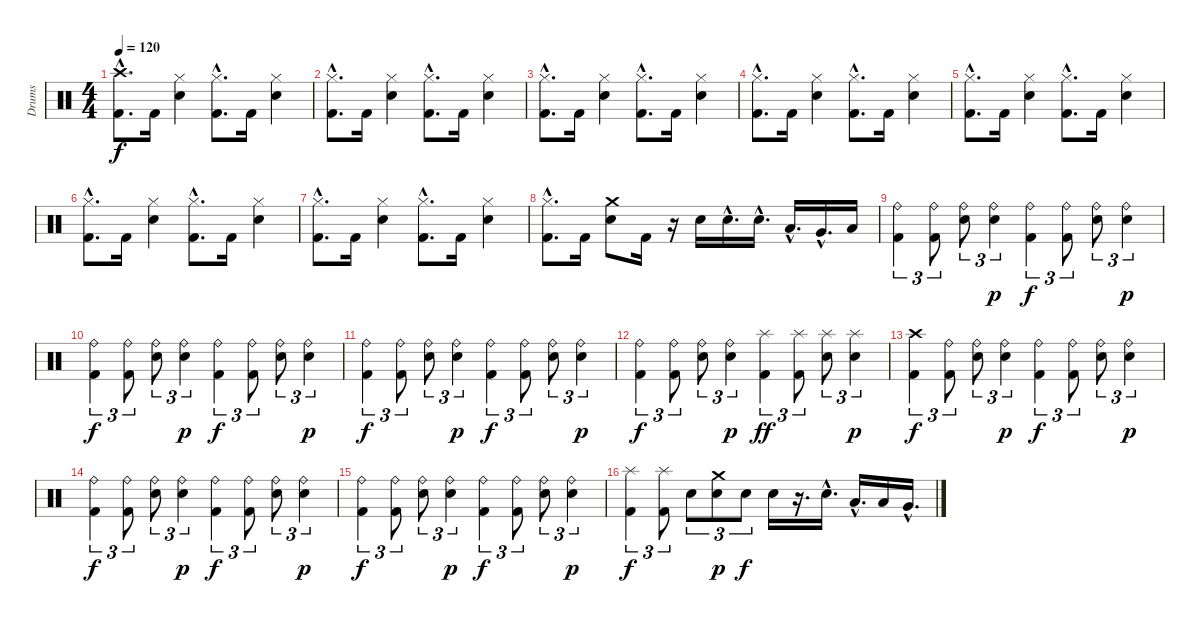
\track ("Drums" "Drums") {instrument percussion}
\staff {score}
\articulation defaults
\ts (4 4)
\tempo 120
\clef neutral
\ks c
("Crash high (hit)"{hac} "Kick (hit) 2"{hac}).8{d dy f} "Kick (hit) 2".16 ("Hi-Hat (closed)" "Snare (hit) 2").4 ("Hi-Hat (closed)"{hac} "Kick (hit) 2"{hac}).8{d} "Kick (hit) 2".16 ("Hi-Hat (closed)" "Snare (hit) 2").4 |
("Hi-Hat (closed)"{hac} "Kick (hit) 2"{hac}).8{d} "Kick (hit) 2".16 ("Hi-Hat (closed)" "Snare (hit) 2").4 ("Hi-Hat (closed)"{hac} "Kick (hit) 2"{hac}).8{d} "Kick (hit) 2".16 ("Hi-Hat (closed)" "Snare (hit) 2").4 |
("Hi-Hat (closed)"{hac} "Kick (hit) 2"{hac}).8{d} "Kick (hit) 2".16 ("Hi-Hat (closed)" "Snare (hit) 2").4 ("Hi-Hat (closed)"{hac} "Kick (hit) 2"{hac}).8{d} "Kick (hit) 2".16 ("Hi-Hat (closed)" "Snare (hit) 2").4 |
("Hi-Hat (closed)"{hac} "Kick (hit) 2"{hac}).8{d} "Kick (hit) 2".16 ("Hi-Hat (closed)" "Snare (hit) 2").4 ("Hi-Hat (closed)"{hac} "Kick (hit) 2"{hac}).8{d} "Kick (hit) 2".16 ("Hi-Hat (closed)" "Snare (hit) 2").4 |
("Hi-Hat (closed)"{hac} "Kick (hit) 2"{hac}).8{d} "Kick (hit) 2".16 ("Hi-Hat (closed)" "Snare (hit) 2").4 ("Hi-Hat (closed)"{hac} "Kick (hit) 2"{hac}).8{d} "Kick (hit) 2".16 ("Hi-Hat (closed)" "Snare (hit) 2").4 |
("Hi-Hat (closed)"{hac} "Kick (hit) 2"{hac}).8{d} "Kick (hit) 2".16 ("Hi-Hat (closed)" "Snare (hit) 2").4 ("Hi-Hat (closed)"{hac} "Kick (hit) 2"{hac}).8{d} "Kick (hit) 2".16 ("Hi-Hat (closed)" "Snare (hit) 2").4 |
("Hi-Hat (closed)"{hac} "Kick (hit) 2"{hac}).8{d} "Kick (hit) 2".16 ("Hi-Hat (closed)" "Snare (hit) 2").4 ("Hi-Hat (closed)"{hac} "Kick (hit) 2"{hac}).8{d} "Kick (hit) 2".16 ("Hi-Hat (closed)" "Snare (hit) 2").4 |
("Hi-Hat (closed)"{hac} "Kick (hit) 2"{hac}).8{d} "Kick (hit) 2".16 ("Crash medium (hit)" "Snare (hit) 2").8 "Kick (hit) 2".16 r.16 "Snare (hit) 2".16 "Snare (hit) 2"{hac}.16{d} "Snare (hit) 2"{hac}.16{d} "Low Tom (hit)"{hac}.16{d} "Very Low Tom (hit)"{hac}.16{d} "Low Floor Tom (hit)".16 |
("Ride (bell)" "Kick (hit) 2").4{tu (3 2)} ("Ride (bell)" "Kick (hit) 2").8{tu (3 2)} ("Ride (bell)" "Snare (hit) 2").8{tu (3 2)} ("Ride (bell)" "Snare (hit) 2").4{tu (3 2) dy p} ("Ride (bell)" "Kick (hit) 2").4{tu (3 2) dy f} ("Ride (bell)" "Kick (hit) 2").8{tu (3 2)} ("Ride (bell)" "Snare (hit) 2").8{tu (3 2)} ("Ride (bell)" "Snare (hit) 2").4{tu (3 2) dy p} |
("Ride (bell)" "Kick (hit) 2").4{tu (3 2) dy f} ("Ride (bell)" "Kick (hit) 2").8{tu (3 2)} ("Ride (bell)" "Snare (hit) 2").8{tu (3 2)} ("Ride (bell)" "Snare (hit) 2").4{tu (3 2) dy p} ("Ride (bell)" "Kick (hit) 2").4{tu (3 2) dy f} ("Ride (bell)" "Kick (hit) 2").8{tu (3 2)} ("Ride (bell)" "Snare (hit) 2").8{tu (3 2)} ("Ride (bell)" "Snare (hit) 2").4{tu (3 2) dy p} |
("Ride (bell)" "Kick (hit) 2").4{tu (3 2) dy f} ("Ride (bell)" "Kick (hit) 2").8{tu (3 2)} ("Ride (bell)" "Snare (hit) 2").8{tu (3 2)} ("Ride (bell)" "Snare (hit) 2").4{tu (3 2) dy p} ("Ride (bell)" "Kick (hit) 2").4{tu (3 2) dy f} ("Ride (bell)" "Kick (hit) 2").8{tu (3 2)} ("Ride (bell)" "Snare (hit) 2").8{tu (3 2)} ("Ride (bell)" "Snare (hit) 2").4{tu (3 2) dy p} |
("Ride (bell)" "Kick (hit) 2").4{tu (3 2) dy f} ("Ride (bell)" "Kick (hit) 2").8{tu (3 2)} ("Ride (bell)" "Snare (hit) 2").8{tu (3 2)} ("Ride (bell)" "Snare (hit) 2").4{tu (3 2) dy p} ("Splash (hit)" "Kick (hit) 2").4{tu (3 2) dy ff} ("Splash (hit)" "Kick (hit) 2").8{tu (3 2)} ("Splash (hit)" "Snare (hit) 2").8{tu (3 2)} ("Splash (hit)" "Snare (hit) 2").4{tu (3 2) dy p} |
("Crash high (hit)" "Kick (hit) 2").4{tu (3 2) dy f} ("Ride (bell)" "Kick (hit) 2").8{tu (3 2)} ("Ride (bell)" "Snare (hit) 2").8{tu (3 2)} ("Ride (bell)" "Snare (hit) 2").4{tu (3 2) dy p} ("Ride (bell)" "Kick (hit) 2").4{tu (3 2) dy f} ("Ride (bell)" "Kick (hit) 2").8{tu (3 2)} ("Ride (bell)" "Snare (hit) 2").8{tu (3 2)} ("Ride (bell)" "Snare (hit) 2").4{tu (3 2) dy p} |
("Ride (bell)" "Kick (hit) 2").4{tu (3 2) dy f} ("Ride (bell)" "Kick (hit) 2").8{tu (3 2)} ("Ride (bell)" "Snare (hit) 2").8{tu (3 2)} ("Ride (bell)" "Snare (hit) 2").4{tu (3 2) dy p} ("Ride (bell)" "Kick (hit) 2").4{tu (3 2) dy f} ("Ride (bell)" "Kick (hit) 2").8{tu (3 2)} ("Ride (bell)" "Snare (hit) 2").8{tu (3 2)} ("Ride (bell)" "Snare (hit) 2").4{tu (3 2) dy p} |
("Ride (bell)" "Kick (hit) 2").4{tu (3 2) dy f} ("Ride (bell)" "Kick (hit) 2").8{tu (3 2)} ("Ride (bell)" "Snare (hit) 2").8{tu (3 2)} ("Ride (bell)" "Snare (hit) 2").4{tu (3 2) dy p} ("Ride (bell)" "Kick (hit) 2").4{tu (3 2) dy f} ("Ride (bell)" "Kick (hit) 2").8{tu (3 2)} ("Ride (bell)" "Snare (hit) 2").8{tu (3 2)} ("Ride (bell)" "Snare (hit) 2").4{tu (3 2) dy p} |
("Splash (hit)" "Kick (hit) 2").4{tu (3 2) dy f} ("Splash (hit)" "Kick (hit) 2").8{tu (3 2)} "Snare (hit) 2".8{tu (3 2)} ("Crash medium (hit)" "Snare (hit) 2").8{tu (3 2) dy p} "Snare (hit) 2".8{tu (3 2) dy f} "Snare (hit) 2".16 r.16{d} "Snare (hit) 2"{hac}.16{d} "Low Tom (hit)"{hac}.16{d} "Low Tom (hit)".16 "Very Low Tom (hit)"{hac}.16{d}
